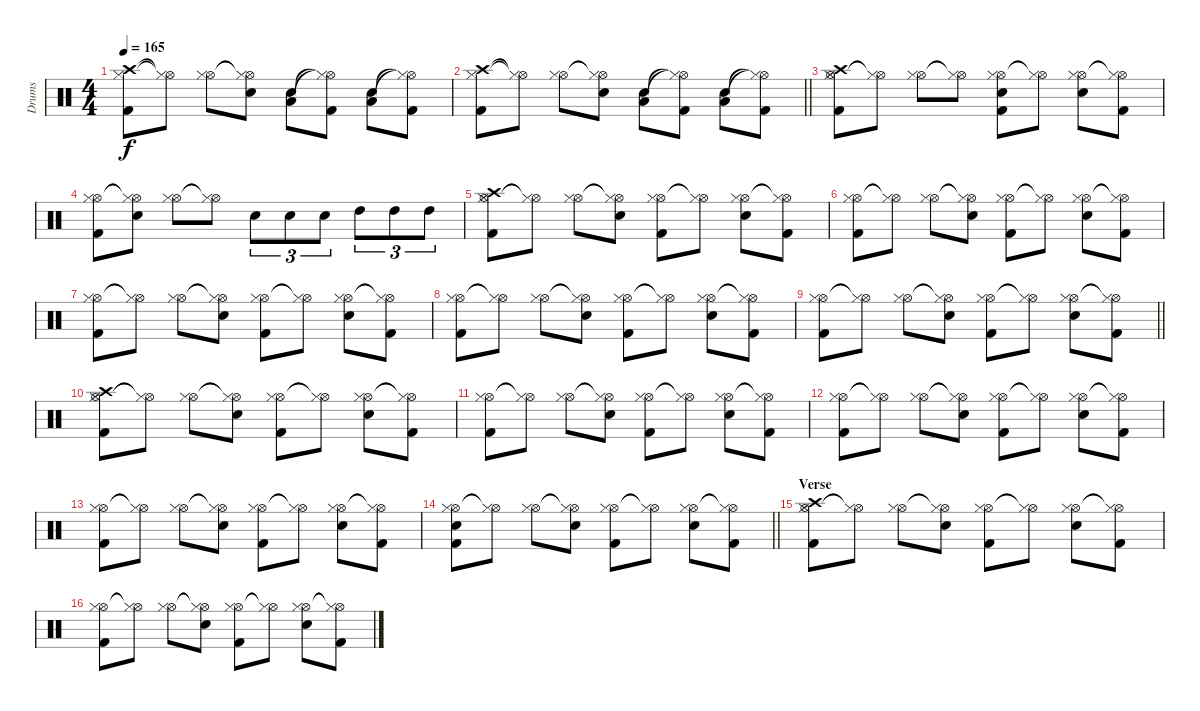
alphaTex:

\track ("Drums" "Drums") {instrument percussion}
\staff {score}
\articulation defaults
\ts (4 4)
\tempo 165
\clef neutral
\ks c
("Crash high (hit)" "Hi-Hat (closed)" "Kick (hit) 2").8{dy f} ("Hi-Hat (open)"{t} "Hi-Hat (closed)"{t}).8 ("Hi-Hat (open)" "Hi-Hat (closed)").8 ("Hi-Hat (open)"{t} "Hi-Hat (closed)"{t} "Snare (hit) 2").8 ("Snare (hit) 2" "Low Tom (hit)").8 ("Hi-Hat (open)"{t} "Hi-Hat (closed)"{t} "Kick (hit) 2").8 ("Snare (hit) 2" "Low Tom (hit)").8 ("Hi-Hat (open)"{t} "Hi-Hat (closed)"{t} "Kick (hit) 2").8 |
\barLineRight lightlight
("Crash high (hit)" "Hi-Hat (closed)" "Kick (hit) 2").8 ("Hi-Hat (open)"{t} "Hi-Hat (closed)"{t}).8 ("Hi-Hat (open)" "Hi-Hat (closed)").8 ("Hi-Hat (open)"{t} "Hi-Hat (closed)"{t} "Snare (hit) 2").8 ("Snare (hit) 2" "Low Tom (hit)").8 ("Hi-Hat (open)"{t} "Hi-Hat (closed)"{t} "Kick (hit) 2").8 ("Snare (hit) 2" "Low Tom (hit)").8 ("Hi-Hat (open)"{t} "Hi-Hat (closed)"{t} "Kick (hit) 2").8 |
("Hi-Hat (open)" "Hi-Hat (closed)" "Crash high (hit)" "Kick (hit) 2").8{volume 15} ("Hi-Hat (open)"{t} "Hi-Hat (closed)"{t}).8 ("Hi-Hat (open)" "Hi-Hat (closed)").8 ("Hi-Hat (open)"{t} "Hi-Hat (closed)"{t}).8 ("Hi-Hat (open)" "Hi-Hat (closed)" "Snare (hit) 2" "Kick (hit) 2").8 ("Hi-Hat (open)"{t} "Hi-Hat (closed)"{t}).8 ("Hi-Hat (open)" "Hi-Hat (closed)" "Snare (hit) 2").8 ("Hi-Hat (open)"{t} "Hi-Hat (closed)"{t} "Kick (hit) 2").8 |
("Hi-Hat (open)" "Hi-Hat (closed)" "Kick (hit) 2").8 ("Hi-Hat (open)"{t} "Hi-Hat (closed)"{t} "Snare (hit) 2").8 ("Hi-Hat (open)" "Hi-Hat (closed)").8 ("Hi-Hat (open)"{t} "Hi-Hat (closed)"{t}).8 "Snare (hit) 2".8{tu (3 2)} "Snare (hit) 2".8{tu (3 2)} "Snare (hit) 2".8{tu (3 2)} "High Tom (hit)".8{tu (3 2)} "High Tom (hit)".8{tu (3 2)} "High Tom (hit)".8{tu (3 2)} |
("Hi-Hat (open)" "Hi-Hat (closed)" "Crash high (hit)" "Kick (hit) 2").8 ("Hi-Hat (open)"{t} "Hi-Hat (closed)"{t}).8 ("Hi-Hat (open)" "Hi-Hat (closed)").8 ("Hi-Hat (open)"{t} "Hi-Hat (closed)"{t} "Snare (hit) 2").8 ("Hi-Hat (open)" "Hi-Hat (closed)" "Kick (hit) 2").8 ("Hi-Hat (open)"{t} "Hi-Hat (closed)"{t}).8 ("Hi-Hat (open)" "Hi-Hat (closed)" "Snare (hit) 2").8 ("Hi-Hat (open)"{t} "Hi-Hat (closed)"{t} "Kick (hit) 2").8 |
("Hi-Hat (open)" "Hi-Hat (closed)" "Kick (hit) 2").8 ("Hi-Hat (open)"{t} "Hi-Hat (closed)"{t}).8 ("Hi-Hat (open)" "Hi-Hat (closed)").8 ("Hi-Hat (open)"{t} "Hi-Hat (closed)"{t} "Snare (hit) 2").8 ("Hi-Hat (open)" "Hi-Hat (closed)" "Kick (hit) 2").8 ("Hi-Hat (open)"{t} "Hi-Hat (closed)"{t}).8 ("Hi-Hat (open)" "Hi-Hat (closed)" "Snare (hit) 2").8 ("Hi-Hat (open)"{t} "Hi-Hat (closed)"{t} "Kick (hit) 2").8 |
("Hi-Hat (open)" "Hi-Hat (closed)" "Kick (hit) 2").8 ("Hi-Hat (open)"{t} "Hi-Hat (closed)"{t}).8 ("Hi-Hat (open)" "Hi-Hat (closed)").8 ("Hi-Hat (open)"{t} "Hi-Hat (closed)"{t} "Snare (hit) 2").8 ("Hi-Hat (open)" "Hi-Hat (closed)" "Kick (hit) 2").8 ("Hi-Hat (open)"{t} "Hi-Hat (closed)"{t}).8 ("Hi-Hat (open)" "Hi-Hat (closed)" "Snare (hit) 2").8 ("Hi-Hat (open)"{t} "Hi-Hat (closed)"{t} "Kick (hit) 2").8 |
("Hi-Hat (open)" "Hi-Hat (closed)" "Kick (hit) 2").8 ("Hi-Hat (open)"{t} "Hi-Hat (closed)"{t}).8 ("Hi-Hat (open)" "Hi-Hat (closed)").8 ("Hi-Hat (open)"{t} "Hi-Hat (closed)"{t} "Snare (hit) 2").8 ("Hi-Hat (open)" "Hi-Hat (closed)" "Kick (hit) 2").8 ("Hi-Hat (open)"{t} "Hi-Hat (closed)"{t}).8 ("Hi-Hat (open)" "Hi-Hat (closed)" "Snare (hit) 2").8 ("Hi-Hat (open)"{t} "Hi-Hat (closed)"{t} "Kick (hit) 2").8 |
\barLineRight lightlight
("Hi-Hat (open)" "Hi-Hat (closed)" "Kick (hit) 2").8 ("Hi-Hat (open)"{t} "Hi-Hat (closed)"{t}).8 ("Hi-Hat (open)" "Hi-Hat (closed)").8 ("Hi-Hat (open)"{t} "Hi-Hat (closed)"{t} "Snare (hit) 2").8 ("Hi-Hat (open)" "Hi-Hat (closed)" "Kick (hit) 2").8 ("Hi-Hat (open)"{t} "Hi-Hat (closed)"{t}).8 ("Hi-Hat (open)" "Hi-Hat (closed)" "Snare (hit) 2").8 ("Hi-Hat (open)"{t} "Hi-Hat (closed)"{t} "Kick (hit) 2").8 |
("Hi-Hat (open)" "Hi-Hat (closed)" "Crash high (hit)" "Kick (hit) 2").8 ("Hi-Hat (open)"{t} "Hi-Hat (closed)"{t}).8 ("Hi-Hat (open)" "Hi-Hat (closed)").8 ("Hi-Hat (open)"{t} "Hi-Hat (closed)"{t} "Snare (hit) 2").8 ("Hi-Hat (open)" "Hi-Hat (closed)" "Kick (hit) 2").8 ("Hi-Hat (open)"{t} "Hi-Hat (closed)"{t}).8 ("Hi-Hat (open)" "Hi-Hat (closed)" "Snare (hit) 2").8 ("Hi-Hat (open)"{t} "Hi-Hat (closed)"{t} "Kick (hit) 2").8 |
("Hi-Hat (open)" "Hi-Hat (closed)" "Kick (hit) 2").8 ("Hi-Hat (open)"{t} "Hi-Hat (closed)"{t}).8 ("Hi-Hat (open)" "Hi-Hat (closed)").8 ("Hi-Hat (open)"{t} "Hi-Hat (closed)"{t} "Snare (hit) 2").8 ("Hi-Hat (open)" "Hi-Hat (closed)" "Kick (hit) 2").8 ("Hi-Hat (open)"{t} "Hi-Hat (closed)"{t}).8 ("Hi-Hat (open)" "Hi-Hat (closed)" "Snare (hit) 2").8 ("Hi-Hat (open)"{t} "Hi-Hat (closed)"{t} "Kick (hit) 2").8 |
("Hi-Hat (open)" "Hi-Hat (closed)" "Kick (hit) 2").8 ("Hi-Hat (open)"{t} "Hi-Hat (closed)"{t}).8 ("Hi-Hat (open)" "Hi-Hat (closed)").8 ("Hi-Hat (open)"{t} "Hi-Hat (closed)"{t} "Snare (hit) 2").8 ("Hi-Hat (open)" "Hi-Hat (closed)" "Kick (hit) 2").8 ("Hi-Hat (open)"{t} "Hi-Hat (closed)"{t}).8 ("Hi-Hat (open)" "Hi-Hat (closed)" "Snare (hit) 2").8 ("Hi-Hat (open)"{t} "Hi-Hat (closed)"{t} "Kick (hit) 2").8 |
("Hi-Hat (open)" "Hi-Hat (closed)" "Kick (hit) 2").8 ("Hi-Hat (open)"{t} "Hi-Hat (closed)"{t}).8 ("Hi-Hat (open)" "Hi-Hat (closed)").8 ("Hi-Hat (open)"{t} "Hi-Hat (closed)"{t} "Snare (hit) 2").8 ("Hi-Hat (open)" "Hi-Hat (closed)" "Kick (hit) 2").8 ("Hi-Hat (open)"{t} "Hi-Hat (closed)"{t}).8 ("Hi-Hat (open)" "Hi-Hat (closed)" "Snare (hit) 2").8 ("Hi-Hat (open)"{t} "Hi-Hat (closed)"{t} "Kick (hit) 2").8 |
\barLineRight lightlight
("Hi-Hat (open)" "Hi-Hat (closed)" "Snare (hit) 2" "Kick (hit) 2").8 ("Hi-Hat (open)"{t} "Hi-Hat (closed)"{t}).8 ("Hi-Hat (open)" "Hi-Hat (closed)").8 ("Hi-Hat (open)"{t} "Hi-Hat (closed)"{t} "Snare (hit) 2").8 ("Hi-Hat (open)" "Hi-Hat (closed)" "Kick (hit) 2").8 ("Hi-Hat (open)"{t} "Hi-Hat (closed)"{t}).8 ("Hi-Hat (open)" "Hi-Hat (closed)" "Snare (hit) 2").8 ("Hi-Hat (open)"{t} "Hi-Hat (closed)"{t} "Kick (hit) 2").8 |
\section ("" "Verse")
("Hi-Hat (open)" "Hi-Hat (closed)" "Crash high (hit)" "Kick (hit) 2").8 ("Hi-Hat (open)"{t} "Hi-Hat (closed)"{t}).8 ("Hi-Hat (open)" "Hi-Hat (closed)").8 ("Hi-Hat (open)"{t} "Hi-Hat (closed)"{t} "Snare (hit) 2").8 ("Hi-Hat (open)" "Hi-Hat (closed)" "Kick (hit) 2").8 ("Hi-Hat (open)"{t} "Hi-Hat (closed)"{t}).8 ("Hi-Hat (open)" "Hi-Hat (closed)" "Snare (hit) 2").8 ("Hi-Hat (open)"{t} "Hi-Hat (closed)"{t} "Kick (hit) 2").8 |
("Hi-Hat (open)" "Hi-Hat (closed)" "Kick (hit) 2").8 ("Hi-Hat (open)"{t} "Hi-Hat (closed)"{t}).8 ("Hi-Hat (open)" "Hi-Hat (closed)").8 ("Hi-Hat (open)"{t} "Hi-Hat (closed)"{t} "Snare (hit) 2").8 ("Hi-Hat (open)" "Hi-Hat (closed)" "Kick (hit) 2").8 ("Hi-Hat (open)"{t} "Hi-Hat (closed)"{t}).8 ("Hi-Hat (open)" "Hi-Hat (closed)" "Snare (hit) 2").8 ("Hi-Hat (open)"{t} "Hi-Hat (closed)"{t} "Kick (hit) 2").8
